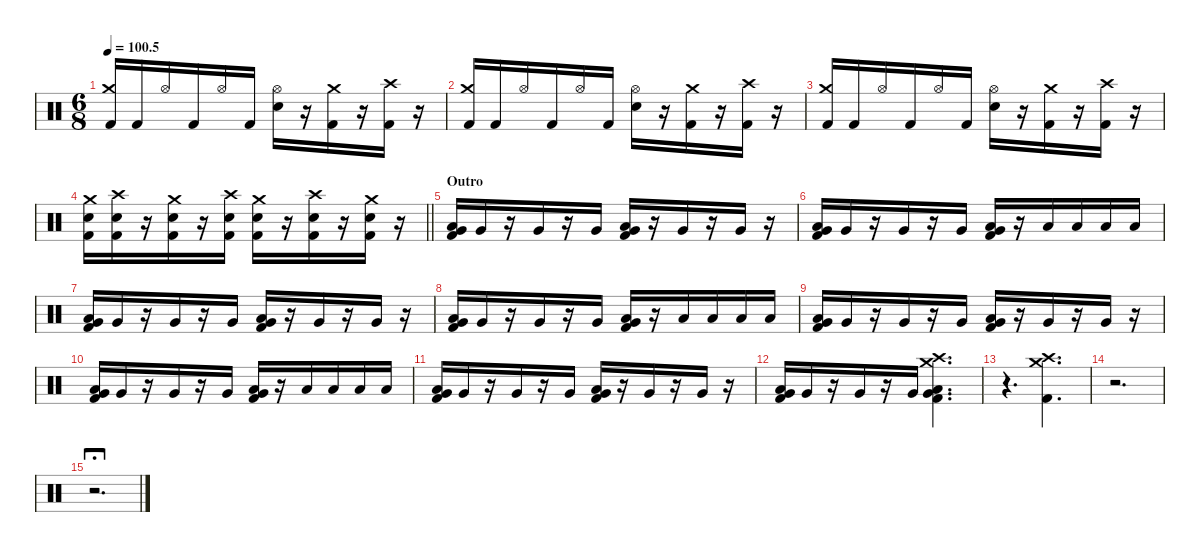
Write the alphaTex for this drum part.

\defaultSystemsLayout 4
\hideDynamics
\bracketExtendMode nobrackets
\singleTrackTrackNamePolicy hidden
\multiTrackTrackNamePolicy hidden
\firstSystemTrackNameMode fullname
\firstSystemTrackNameOrientation horizontal
\otherSystemsTrackNameOrientation horizontal
\track ("Drums" "drm.") {instrument percussion}
\staff {score}
\articulation defaults
\ts (6 8)
\tempo
100.5
\accidentals auto
\clef neutral
\ottava regular
\simile none
\ks c
("Crash medium (hit)" "Kick (hit) 2").16{dy f beam Up} "Kick (hit) 2".16{beam Up} "Hi-Hat (open)".16{beam Up} "Kick (hit) 2".16{beam Up} "Hi-Hat (open)".16{beam Up} "Kick (hit) 2".16{beam Up} ("Hi-Hat (open)" "Snare (hit) 2").16{beam Down} r.16{beam Down} ("Crash medium (hit)" "Kick (hit) 2").16{beam Down} r.16{beam Down} ("Crash high (hit)" "Kick (hit) 2").16{beam Down} r.16{beam Down} |
("Crash medium (hit)" "Kick (hit) 2").16{beam Up} "Kick (hit) 2".16{beam Up} "Hi-Hat (open)".16{beam Up} "Kick (hit) 2".16{beam Up} "Hi-Hat (open)".16{beam Up} "Kick (hit) 2".16{beam Up} ("Hi-Hat (open)" "Snare (hit) 2").16{beam Down} r.16{beam Down} ("Crash medium (hit)" "Kick (hit) 2").16{beam Down} r.16{beam Down} ("Crash high (hit)" "Kick (hit) 2").16{beam Down} r.16{beam Down} |
("Crash medium (hit)" "Kick (hit) 2").16{beam Up} "Kick (hit) 2".16{beam Up} "Hi-Hat (open)".16{beam Up} "Kick (hit) 2".16{beam Up} "Hi-Hat (open)".16{beam Up} "Kick (hit) 2".16{beam Up} ("Hi-Hat (open)" "Snare (hit) 2").16{beam Down} r.16{beam Down} ("Crash medium (hit)" "Kick (hit) 2").16{beam Down} r.16{beam Down} ("Crash high (hit)" "Kick (hit) 2").16{beam Down} r.16{beam Down} |
\barLineRight lightlight
("Crash medium (hit)" "Snare (hit) 2" "Kick (hit) 2").16{beam Down} ("Crash high (hit)" "Snare (hit) 2" "Kick (hit) 2").16{beam Down} r.16{beam Down} ("Crash medium (hit)" "Snare (hit) 2" "Kick (hit) 2").16{beam Down} r.16{beam Down} ("Crash high (hit)" "Snare (hit) 2" "Kick (hit) 2").16{beam Down} ("Crash medium (hit)" "Snare (hit) 2" "Kick (hit) 2").16{beam Down} r.16{beam Down} ("Crash high (hit)" "Snare (hit) 2" "Kick (hit) 2").16{beam Down} r.16{beam Down} ("Crash medium (hit)" "Snare (hit) 2" "Kick (hit) 2").16{beam Down} r.16{beam Down} |
\section ("" "Outro")
("Low Tom (hit)" "Very Low Tom (hit)" "Kick (hit) 2").16{beam Up} "Very Low Tom (hit)".16{beam Up} r.16{beam Up} "Very Low Tom (hit)".16{beam Up} r.16{beam Up} "Very Low Tom (hit)".16{beam Up} ("Low Tom (hit)" "Very Low Tom (hit)" "Kick (hit) 2").16{beam Up} r.16{beam Up} "Very Low Tom (hit)".16{beam Up} r.16{beam Up} "Very Low Tom (hit)".16{beam Up} r.16{beam Up} |
("Low Tom (hit)" "Very Low Tom (hit)" "Kick (hit) 2").16{beam Up} "Very Low Tom (hit)".16{beam Up} r.16{beam Up} "Very Low Tom (hit)".16{beam Up} r.16{beam Up} "Very Low Tom (hit)".16{beam Up} ("Low Tom (hit)" "Very Low Tom (hit)" "Kick (hit) 2").16{beam Up} r.16{beam Up} "Low Floor Tom (hit)".16{beam Up} "Low Floor Tom (hit)".16{beam Up} "Low Floor Tom (hit)".16{beam Up} "Low Floor Tom (hit)".16{beam Up} |
("Low Tom (hit)" "Very Low Tom (hit)" "Kick (hit) 2").16{beam Up} "Very Low Tom (hit)".16{beam Up} r.16{beam Up} "Very Low Tom (hit)".16{beam Up} r.16{beam Up} "Very Low Tom (hit)".16{beam Up} ("Low Tom (hit)" "Very Low Tom (hit)" "Kick (hit) 2").16{beam Up} r.16{beam Up} "Very Low Tom (hit)".16{beam Up} r.16{beam Up} "Very Low Tom (hit)".16{beam Up} r.16{beam Up} |
("Low Tom (hit)" "Very Low Tom (hit)" "Kick (hit) 2").16{beam Up} "Very Low Tom (hit)".16{beam Up} r.16{beam Up} "Very Low Tom (hit)".16{beam Up} r.16{beam Up} "Very Low Tom (hit)".16{beam Up} ("Low Tom (hit)" "Very Low Tom (hit)" "Kick (hit) 2").16{beam Up} r.16{beam Up} "Low Floor Tom (hit)".16{beam Up} "Low Floor Tom (hit)".16{beam Up} "Low Floor Tom (hit)".16{beam Up} "Low Floor Tom (hit)".16{beam Up} |
("Low Tom (hit)" "Very Low Tom (hit)" "Kick (hit) 2").16{beam Up} "Very Low Tom (hit)".16{beam Up} r.16{beam Up} "Very Low Tom (hit)".16{beam Up} r.16{beam Up} "Very Low Tom (hit)".16{beam Up} ("Low Tom (hit)" "Very Low Tom (hit)" "Kick (hit) 2").16{beam Up} r.16{beam Up} "Very Low Tom (hit)".16{beam Up} r.16{beam Up} "Very Low Tom (hit)".16{beam Up} r.16{beam Up} |
("Low Tom (hit)" "Very Low Tom (hit)" "Kick (hit) 2").16{beam Up} "Very Low Tom (hit)".16{beam Up} r.16{beam Up} "Very Low Tom (hit)".16{beam Up} r.16{beam Up} "Very Low Tom (hit)".16{beam Up} ("Low Tom (hit)" "Very Low Tom (hit)" "Kick (hit) 2").16{beam Up} r.16{beam Up} "Low Floor Tom (hit)".16{dy mf beam Up} "Low Floor Tom (hit)".16{beam Up} "Low Floor Tom (hit)".16{beam Up} "Low Floor Tom (hit)".16{beam Up} |
("Low Tom (hit)" "Very Low Tom (hit)" "Kick (hit) 2").16{dy f beam Up} "Very Low Tom (hit)".16{beam Up} r.16{beam Up} "Very Low Tom (hit)".16{beam Up} r.16{beam Up} "Very Low Tom (hit)".16{beam Up} ("Low Tom (hit)" "Very Low Tom (hit)" "Kick (hit) 2").16{beam Up} r.16{beam Up} "Very Low Tom (hit)".16{beam Up} r.16{beam Up} "Very Low Tom (hit)".16{beam Up} r.16{beam Up} |
("Low Tom (hit)" "Very Low Tom (hit)" "Kick (hit) 2").16{beam Up} "Very Low Tom (hit)".16{beam Up} r.16{beam Up} "Very Low Tom (hit)".16{beam Up} r.16{beam Up} "Very Low Tom (hit)".16{beam Up} ("Low Tom (hit)" "Very Low Tom (hit)" "Kick (hit) 2" "Crash high (hit)" "Crash medium (hit)").4{d beam Down} |
r.4{d beam Down} ("Crash medium (hit)" "Crash high (hit)" "Kick (hit) 2").4{d dy mf beam Down} |
r.2{d beam Down} |
r.2{d fermata (long 1) beam Down}
